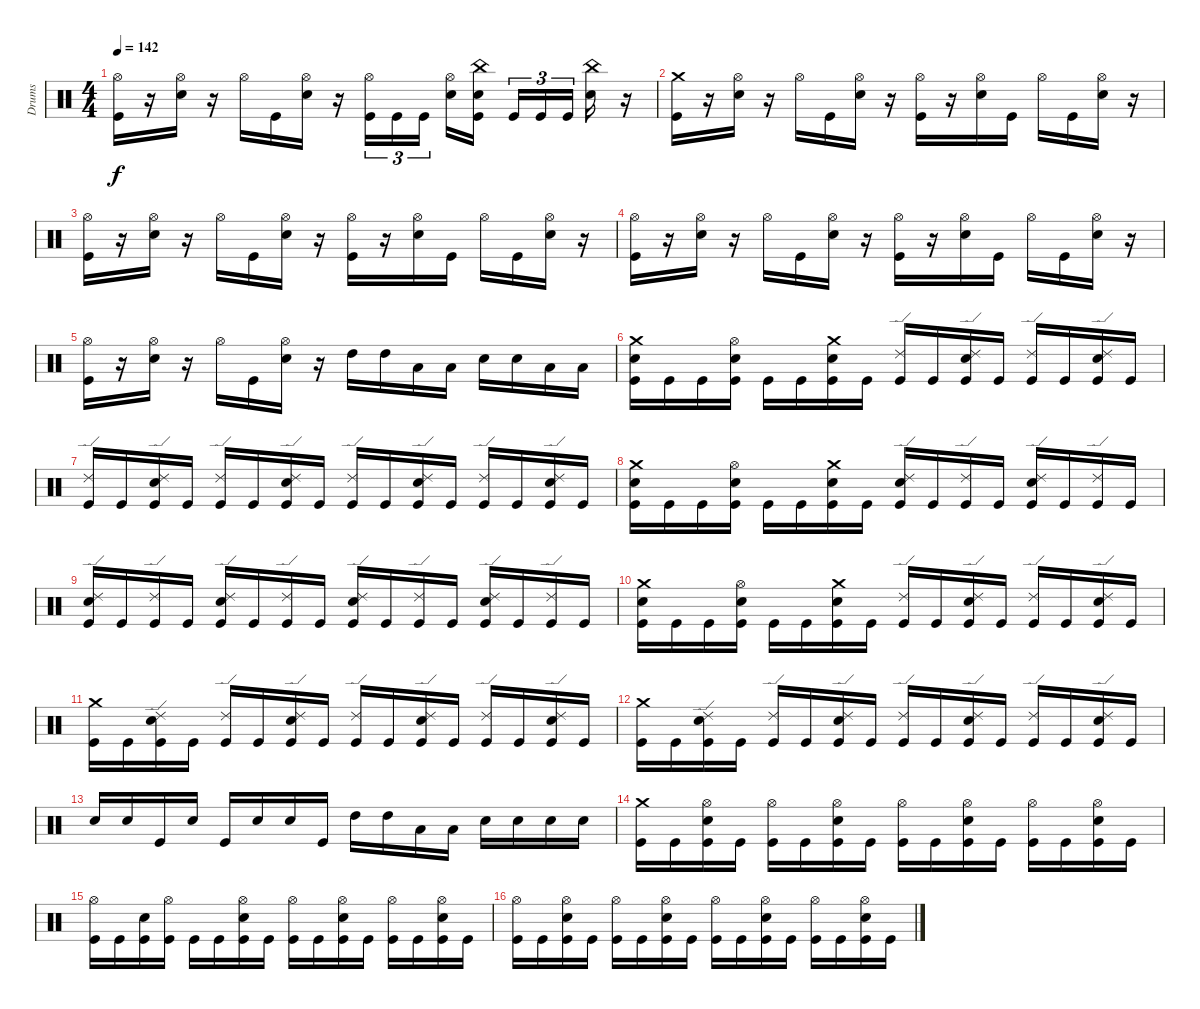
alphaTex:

\track ("Drums" "Drums") {instrument percussion}
\staff {score}
\articulation defaults
\ts (4 4)
\tempo 142
\clef neutral
\ks c
("Hi-Hat (open)" "Kick (hit)").16{dy f} r.16 ("Hi-Hat (open)" "Electric Snare (hit)").16 r.16 "Hi-Hat (open)".16 "Kick (hit)".16 ("Hi-Hat (open)" "Electric Snare (hit)").16 r.16 ("Kick (hit)" "Hi-Hat (open)").16{tu (3 2)} "Kick (hit)".16{tu (3 2)} "Kick (hit)".16{tu (3 2)} ("Hi-Hat (open)" "Electric Snare (hit)").16 ("Kick (hit)" "China (hit)" "Electric Snare (hit)").16 "Kick (hit)".16{tu (3 2)} "Kick (hit)".16{tu (3 2)} "Kick (hit)".16{tu (3 2)} ("China (hit)" "Electric Snare (hit)").16 r.16 |
("Kick (hit)" "Crash medium (hit)").16 r.16 ("Electric Snare (hit)" "Hi-Hat (open)").16 r.16 "Hi-Hat (open)".16 "Kick (hit)".16 ("Electric Snare (hit)" "Hi-Hat (open)").16 r.16 ("Kick (hit)" "Hi-Hat (open)").16 r.16 ("Electric Snare (hit)" "Hi-Hat (open)").16 "Kick (hit)".16 "Hi-Hat (open)".16 "Kick (hit)".16 ("Electric Snare (hit)" "Hi-Hat (open)").16 r.16 |
("Hi-Hat (open)" "Kick (hit)").16 r.16 ("Hi-Hat (open)" "Electric Snare (hit)").16 r.16 "Hi-Hat (open)".16 "Kick (hit)".16 ("Hi-Hat (open)" "Electric Snare (hit)").16 r.16 ("Kick (hit)" "Hi-Hat (open)").16 r.16 ("Hi-Hat (open)" "Electric Snare (hit)").16 "Kick (hit)".16 "Hi-Hat (open)".16 "Kick (hit)".16 ("Hi-Hat (open)" "Electric Snare (hit)").16 r.16 |
("Kick (hit)" "Hi-Hat (open)").16 r.16 ("Electric Snare (hit)" "Hi-Hat (open)").16 r.16 "Hi-Hat (open)".16 "Kick (hit)".16 ("Electric Snare (hit)" "Hi-Hat (open)").16 r.16 ("Kick (hit)" "Hi-Hat (open)").16 r.16 ("Electric Snare (hit)" "Hi-Hat (open)").16 "Kick (hit)".16 "Hi-Hat (open)".16 "Kick (hit)".16 ("Electric Snare (hit)" "Hi-Hat (open)").16 r.16 |
("Hi-Hat (open)" "Kick (hit)").16 r.16 ("Hi-Hat (open)" "Electric Snare (hit)").16 r.16 "Hi-Hat (open)".16 "Kick (hit)".16 ("Hi-Hat (open)" "Electric Snare (hit)").16 r.16 "High Tom (hit)".16 "High Tom (hit)".16 "Low Tom (hit)".16 "Low Tom (hit)".16 "Electric Snare (hit)".16 "Electric Snare (hit)".16 "Low Tom (hit)".16 "Low Tom (hit)".16 |
("Crash medium (hit)" "Electric Snare (hit)" "Kick (hit)").16 "Kick (hit)".16 "Kick (hit)".16 ("Hi-Hat (open)" "Electric Snare (hit)" "Kick (hit)").16 "Kick (hit)".16 "Kick (hit)".16 ("Crash medium (hit)" "Electric Snare (hit)" "Kick (hit)").16 "Kick (hit)".16 ("Kick (hit)" "Ride (edge) 2").16 "Kick (hit)".16 ("Kick (hit)" "Ride (edge) 2" "Electric Snare (hit)").16 "Kick (hit)".16 ("Kick (hit)" "Ride (edge) 2").16 "Kick (hit)".16 ("Kick (hit)" "Ride (edge) 2" "Electric Snare (hit)").16 "Kick (hit)".16 |
("Ride (edge) 2" "Kick (hit)").16 "Kick (hit)".16 ("Ride (edge) 2" "Electric Snare (hit)" "Kick (hit)").16 "Kick (hit)".16 ("Ride (edge) 2" "Kick (hit)").16 "Kick (hit)".16 ("Ride (edge) 2" "Electric Snare (hit)" "Kick (hit)").16 "Kick (hit)".16 ("Ride (edge) 2" "Kick (hit)").16 "Kick (hit)".16 ("Ride (edge) 2" "Electric Snare (hit)" "Kick (hit)").16 "Kick (hit)".16 ("Ride (edge) 2" "Kick (hit)").16 "Kick (hit)".16 ("Ride (edge) 2" "Electric Snare (hit)" "Kick (hit)").16 "Kick (hit)".16 |
("Crash medium (hit)" "Electric Snare (hit)" "Kick (hit)").16 "Kick (hit)".16 "Kick (hit)".16 ("Hi-Hat (open)" "Electric Snare (hit)" "Kick (hit)").16 "Kick (hit)".16 "Kick (hit)".16 ("Crash medium (hit)" "Electric Snare (hit)" "Kick (hit)").16 "Kick (hit)".16 ("Electric Snare (hit)" "Kick (hit)" "Ride (edge) 2").16 "Kick (hit)".16 ("Kick (hit)" "Ride (edge) 2").16 "Kick (hit)".16 ("Electric Snare (hit)" "Kick (hit)" "Ride (edge) 2").16 "Kick (hit)".16 ("Kick (hit)" "Ride (edge) 2").16 "Kick (hit)".16 |
("Electric Snare (hit)" "Ride (edge) 2" "Kick (hit)").16 "Kick (hit)".16 ("Ride (edge) 2" "Kick (hit)").16 "Kick (hit)".16 ("Electric Snare (hit)" "Ride (edge) 2" "Kick (hit)").16 "Kick (hit)".16 ("Ride (edge) 2" "Kick (hit)").16 "Kick (hit)".16 ("Electric Snare (hit)" "Ride (edge) 2" "Kick (hit)").16 "Kick (hit)".16 ("Ride (edge) 2" "Kick (hit)").16 "Kick (hit)".16 ("Electric Snare (hit)" "Ride (edge) 2" "Kick (hit)").16 "Kick (hit)".16 ("Ride (edge) 2" "Kick (hit)").16 "Kick (hit)".16 |
("Crash medium (hit)" "Electric Snare (hit)" "Kick (hit)").16 "Kick (hit)".16 "Kick (hit)".16 ("Hi-Hat (open)" "Electric Snare (hit)" "Kick (hit)").16 "Kick (hit)".16 "Kick (hit)".16 ("Crash medium (hit)" "Electric Snare (hit)" "Kick (hit)").16 "Kick (hit)".16 ("Kick (hit)" "Ride (edge) 2").16 "Kick (hit)".16 ("Kick (hit)" "Ride (edge) 2" "Electric Snare (hit)").16 "Kick (hit)".16 ("Kick (hit)" "Ride (edge) 2").16 "Kick (hit)".16 ("Kick (hit)" "Ride (edge) 2" "Electric Snare (hit)").16 "Kick (hit)".16 |
("Crash medium (hit)" "Kick (hit)").16 "Kick (hit)".16 ("Ride (edge) 2" "Electric Snare (hit)" "Kick (hit)").16 "Kick (hit)".16 ("Ride (edge) 2" "Kick (hit)").16 "Kick (hit)".16 ("Ride (edge) 2" "Electric Snare (hit)" "Kick (hit)").16 "Kick (hit)".16 ("Ride (edge) 2" "Kick (hit)").16 "Kick (hit)".16 ("Ride (edge) 2" "Electric Snare (hit)" "Kick (hit)").16 "Kick (hit)".16 ("Ride (edge) 2" "Kick (hit)").16 "Kick (hit)".16 ("Ride (edge) 2" "Electric Snare (hit)" "Kick (hit)").16 "Kick (hit)".16 |
("Crash medium (hit)" "Kick (hit)").16 "Kick (hit)".16 ("Ride (edge) 2" "Electric Snare (hit)" "Kick (hit)").16 "Kick (hit)".16 ("Ride (edge) 2" "Kick (hit)").16 "Kick (hit)".16 ("Ride (edge) 2" "Electric Snare (hit)" "Kick (hit)").16 "Kick (hit)".16 ("Ride (edge) 2" "Kick (hit)").16 "Kick (hit)".16 ("Ride (edge) 2" "Electric Snare (hit)" "Kick (hit)").16 "Kick (hit)".16 ("Ride (edge) 2" "Kick (hit)").16 "Kick (hit)".16 ("Ride (edge) 2" "Electric Snare (hit)" "Kick (hit)").16 "Kick (hit)".16 |
"Electric Snare (hit)".16 "Electric Snare (hit)".16 "Kick (hit)".16 "Electric Snare (hit)".16 "Kick (hit)".16 "Electric Snare (hit)".16 "Electric Snare (hit)".16 "Kick (hit)".16 "High Tom (hit)".16 "High Tom (hit)".16 "Low Tom (hit)".16 "Low Tom (hit)".16 "Electric Snare (hit)".16 "Electric Snare (hit)".16 "Electric Snare (hit)".16 "Electric Snare (hit)".16 |
("Crash medium (hit)" "Kick (hit)").16 "Kick (hit)".16 ("Electric Snare (hit)" "Hi-Hat (open)" "Kick (hit)").16 "Kick (hit)".16 ("Hi-Hat (open)" "Kick (hit)").16 "Kick (hit)".16 ("Electric Snare (hit)" "Hi-Hat (open)" "Kick (hit)").16 "Kick (hit)".16 ("Hi-Hat (open)" "Kick (hit)").16 "Kick (hit)".16 ("Electric Snare (hit)" "Hi-Hat (open)" "Kick (hit)").16 "Kick (hit)".16 ("Hi-Hat (open)" "Kick (hit)").16 "Kick (hit)".16 ("Electric Snare (hit)" "Hi-Hat (open)" "Kick (hit)").16 "Kick (hit)".16 |
("Hi-Hat (open)" "Kick (hit)").16 "Kick (hit)".16 ("Electric Snare (hit)" "Kick (hit)").16 ("Hi-Hat (open)" "Kick (hit)").16 "Kick (hit)".16 "Kick (hit)".16 ("Electric Snare (hit)" "Hi-Hat (open)" "Kick (hit)").16 "Kick (hit)".16 ("Hi-Hat (open)" "Kick (hit)").16 "Kick (hit)".16 ("Electric Snare (hit)" "Hi-Hat (open)" "Kick (hit)").16 "Kick (hit)".16 ("Hi-Hat (open)" "Kick (hit)").16 "Kick (hit)".16 ("Electric Snare (hit)" "Hi-Hat (open)" "Kick (hit)").16 "Kick (hit)".16 |
("Hi-Hat (open)" "Kick (hit)").16 "Kick (hit)".16 ("Electric Snare (hit)" "Hi-Hat (open)" "Kick (hit)").16 "Kick (hit)".16 ("Hi-Hat (open)" "Kick (hit)").16 "Kick (hit)".16 ("Electric Snare (hit)" "Hi-Hat (open)" "Kick (hit)").16 "Kick (hit)".16 ("Hi-Hat (open)" "Kick (hit)").16 "Kick (hit)".16 ("Electric Snare (hit)" "Hi-Hat (open)" "Kick (hit)").16 "Kick (hit)".16 ("Hi-Hat (open)" "Kick (hit)").16 "Kick (hit)".16 ("Electric Snare (hit)" "Hi-Hat (open)" "Kick (hit)").16 "Kick (hit)".16
